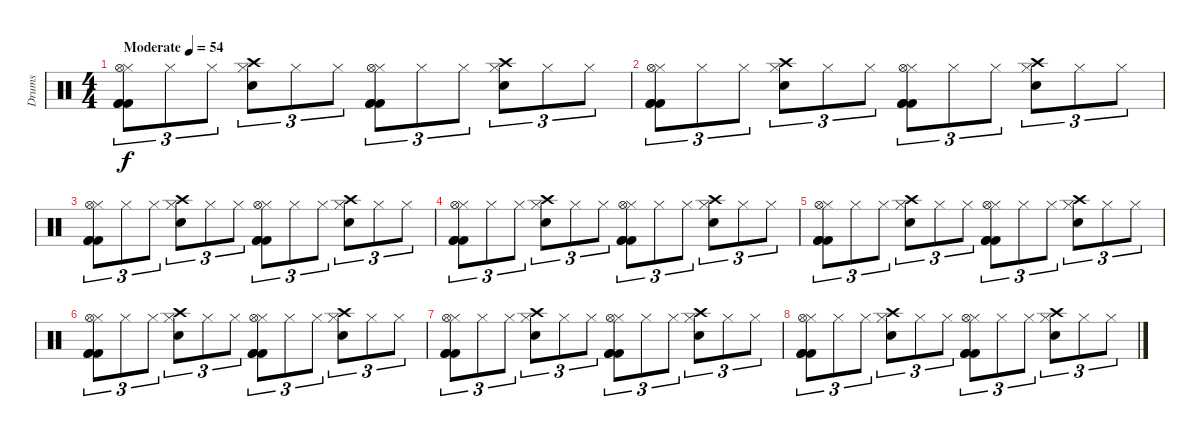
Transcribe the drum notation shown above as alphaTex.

\track ("Drums" "Drums") {instrument percussion}
\staff {score}
\articulation defaults
\ts (4 4)
\tempo (54 "Moderate")
\clef neutral
\ks c
("Hi-Hat (closed)" "Hi-Hat (open)" "Kick (hit) 2" "Kick (hit) 2" "Kick (hit) 2").8{tu (3 2) dy f} "Hi-Hat (closed)".8{tu (3 2)} "Hi-Hat (closed)".8{tu (3 2)} ("Hi-Hat (closed)" "Crash high (hit)" "Snare (hit) 2").8{tu (3 2)} "Hi-Hat (closed)".8{tu (3 2)} "Hi-Hat (closed)".8{tu (3 2)} ("Hi-Hat (closed)" "Hi-Hat (open)" "Kick (hit) 2" "Kick (hit) 2" "Kick (hit) 2").8{tu (3 2)} "Hi-Hat (closed)".8{tu (3 2)} "Hi-Hat (closed)".8{tu (3 2)} ("Hi-Hat (closed)" "Crash high (hit)" "Snare (hit) 2").8{tu (3 2)} "Hi-Hat (closed)".8{tu (3 2)} "Hi-Hat (closed)".8{tu (3 2)} |
("Hi-Hat (closed)" "Hi-Hat (open)" "Kick (hit) 2" "Kick (hit) 2" "Kick (hit) 2").8{tu (3 2)} "Hi-Hat (closed)".8{tu (3 2)} "Hi-Hat (closed)".8{tu (3 2)} ("Hi-Hat (closed)" "Crash high (hit)" "Snare (hit) 2").8{tu (3 2)} "Hi-Hat (closed)".8{tu (3 2)} "Hi-Hat (closed)".8{tu (3 2)} ("Hi-Hat (closed)" "Hi-Hat (open)" "Kick (hit) 2" "Kick (hit) 2" "Kick (hit) 2").8{tu (3 2)} "Hi-Hat (closed)".8{tu (3 2)} "Hi-Hat (closed)".8{tu (3 2)} ("Hi-Hat (closed)" "Crash high (hit)" "Snare (hit) 2").8{tu (3 2)} "Hi-Hat (closed)".8{tu (3 2)} "Hi-Hat (closed)".8{tu (3 2)} |
("Hi-Hat (closed)" "Hi-Hat (open)" "Kick (hit) 2" "Kick (hit) 2" "Kick (hit) 2").8{tu (3 2)} "Hi-Hat (closed)".8{tu (3 2)} "Hi-Hat (closed)".8{tu (3 2)} ("Hi-Hat (closed)" "Crash high (hit)" "Snare (hit) 2").8{tu (3 2)} "Hi-Hat (closed)".8{tu (3 2)} "Hi-Hat (closed)".8{tu (3 2)} ("Hi-Hat (closed)" "Hi-Hat (open)" "Kick (hit) 2" "Kick (hit) 2" "Kick (hit) 2").8{tu (3 2)} "Hi-Hat (closed)".8{tu (3 2)} "Hi-Hat (closed)".8{tu (3 2)} ("Hi-Hat (closed)" "Crash high (hit)" "Snare (hit) 2").8{tu (3 2)} "Hi-Hat (closed)".8{tu (3 2)} "Hi-Hat (closed)".8{tu (3 2)} |
("Hi-Hat (closed)" "Hi-Hat (open)" "Kick (hit) 2" "Kick (hit) 2" "Kick (hit) 2").8{tu (3 2)} "Hi-Hat (closed)".8{tu (3 2)} "Hi-Hat (closed)".8{tu (3 2)} ("Hi-Hat (closed)" "Crash high (hit)" "Snare (hit) 2").8{tu (3 2)} "Hi-Hat (closed)".8{tu (3 2)} "Hi-Hat (closed)".8{tu (3 2)} ("Hi-Hat (closed)" "Hi-Hat (open)" "Kick (hit) 2" "Kick (hit) 2" "Kick (hit) 2").8{tu (3 2)} "Hi-Hat (closed)".8{tu (3 2)} "Hi-Hat (closed)".8{tu (3 2)} ("Hi-Hat (closed)" "Crash high (hit)" "Snare (hit) 2").8{tu (3 2)} "Hi-Hat (closed)".8{tu (3 2)} "Hi-Hat (closed)".8{tu (3 2)} |
("Hi-Hat (closed)" "Hi-Hat (open)" "Kick (hit) 2" "Kick (hit) 2" "Kick (hit) 2").8{tu (3 2)} "Hi-Hat (closed)".8{tu (3 2)} "Hi-Hat (closed)".8{tu (3 2)} ("Hi-Hat (closed)" "Crash high (hit)" "Snare (hit) 2").8{tu (3 2)} "Hi-Hat (closed)".8{tu (3 2)} "Hi-Hat (closed)".8{tu (3 2)} ("Hi-Hat (closed)" "Hi-Hat (open)" "Kick (hit) 2" "Kick (hit) 2" "Kick (hit) 2").8{tu (3 2)} "Hi-Hat (closed)".8{tu (3 2)} "Hi-Hat (closed)".8{tu (3 2)} ("Hi-Hat (closed)" "Crash high (hit)" "Snare (hit) 2").8{tu (3 2)} "Hi-Hat (closed)".8{tu (3 2)} "Hi-Hat (closed)".8{tu (3 2)} |
("Hi-Hat (closed)" "Hi-Hat (open)" "Kick (hit) 2" "Kick (hit) 2" "Kick (hit) 2").8{tu (3 2)} "Hi-Hat (closed)".8{tu (3 2)} "Hi-Hat (closed)".8{tu (3 2)} ("Hi-Hat (closed)" "Crash high (hit)" "Snare (hit) 2").8{tu (3 2)} "Hi-Hat (closed)".8{tu (3 2)} "Hi-Hat (closed)".8{tu (3 2)} ("Hi-Hat (closed)" "Hi-Hat (open)" "Kick (hit) 2" "Kick (hit) 2" "Kick (hit) 2").8{tu (3 2)} "Hi-Hat (closed)".8{tu (3 2)} "Hi-Hat (closed)".8{tu (3 2)} ("Hi-Hat (closed)" "Crash high (hit)" "Snare (hit) 2").8{tu (3 2)} "Hi-Hat (closed)".8{tu (3 2)} "Hi-Hat (closed)".8{tu (3 2)} |
("Hi-Hat (closed)" "Hi-Hat (open)" "Kick (hit) 2" "Kick (hit) 2" "Kick (hit) 2").8{tu (3 2)} "Hi-Hat (closed)".8{tu (3 2)} "Hi-Hat (closed)".8{tu (3 2)} ("Hi-Hat (closed)" "Crash high (hit)" "Snare (hit) 2").8{tu (3 2)} "Hi-Hat (closed)".8{tu (3 2)} "Hi-Hat (closed)".8{tu (3 2)} ("Hi-Hat (closed)" "Hi-Hat (open)" "Kick (hit) 2" "Kick (hit) 2" "Kick (hit) 2").8{tu (3 2)} "Hi-Hat (closed)".8{tu (3 2)} "Hi-Hat (closed)".8{tu (3 2)} ("Hi-Hat (closed)" "Crash high (hit)" "Snare (hit) 2").8{tu (3 2)} "Hi-Hat (closed)".8{tu (3 2)} "Hi-Hat (closed)".8{tu (3 2)} |
("Hi-Hat (closed)" "Hi-Hat (open)" "Kick (hit) 2" "Kick (hit) 2" "Kick (hit) 2").8{tu (3 2)} "Hi-Hat (closed)".8{tu (3 2)} "Hi-Hat (closed)".8{tu (3 2)} ("Hi-Hat (closed)" "Crash high (hit)" "Snare (hit) 2").8{tu (3 2)} "Hi-Hat (closed)".8{tu (3 2)} "Hi-Hat (closed)".8{tu (3 2)} ("Hi-Hat (closed)" "Hi-Hat (open)" "Kick (hit) 2" "Kick (hit) 2" "Kick (hit) 2").8{tu (3 2)} "Hi-Hat (closed)".8{tu (3 2)} "Hi-Hat (closed)".8{tu (3 2)} ("Hi-Hat (closed)" "Crash high (hit)" "Snare (hit) 2").8{tu (3 2)} "Hi-Hat (closed)".8{tu (3 2)} "Hi-Hat (closed)".8{tu (3 2)}
